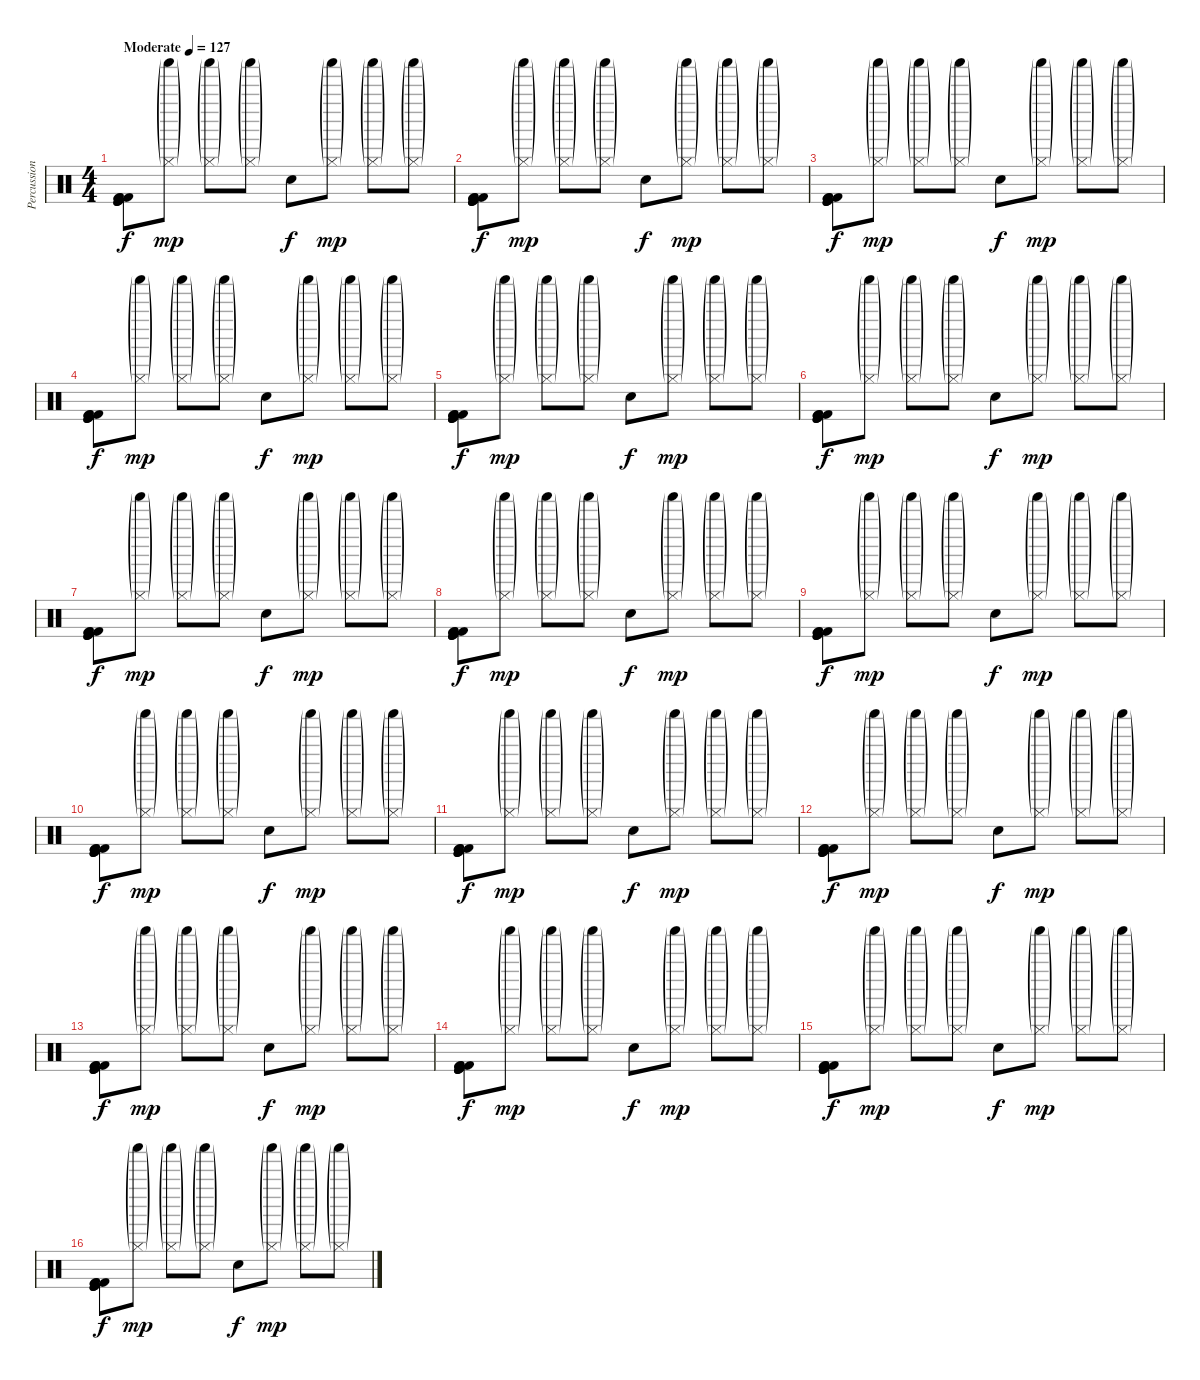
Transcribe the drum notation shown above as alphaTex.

\track ("Percussion" "Percussion") {instrument percussion}
\staff {score}
\articulation defaults
\ts (4 4)
\tempo (127 "Moderate")
\clef neutral
\ks c
("Kick (hit)" "Kick (hit) 2" "Kick (hit)" "Kick (hit) 2" "Kick (hit)" "Kick (hit) 2").8{dy f} ("Shaker (hit)"{g} "Hi-Hat (closed)"{g}).8{dy mp} ("Shaker (hit)"{g} "Hi-Hat (closed)"{g}).8 ("Shaker (hit)"{g} "Hi-Hat (closed)"{g}).8 "Electric Snare (hit)".8{dy f} ("Shaker (hit)"{g} "Hi-Hat (closed)"{g}).8{dy mp} ("Shaker (hit)"{g} "Hi-Hat (closed)"{g}).8 ("Shaker (hit)"{g} "Hi-Hat (closed)"{g}).8 |
("Kick (hit)" "Kick (hit) 2" "Kick (hit)" "Kick (hit) 2" "Kick (hit)" "Kick (hit) 2").8{dy f} ("Shaker (hit)"{g} "Hi-Hat (closed)"{g}).8{dy mp} ("Shaker (hit)"{g} "Hi-Hat (closed)"{g}).8 ("Shaker (hit)"{g} "Hi-Hat (closed)"{g}).8 "Electric Snare (hit)".8{dy f} ("Shaker (hit)"{g} "Hi-Hat (closed)"{g}).8{dy mp} ("Shaker (hit)"{g} "Hi-Hat (closed)"{g}).8 ("Shaker (hit)"{g} "Hi-Hat (closed)"{g}).8 |
("Kick (hit)" "Kick (hit) 2" "Kick (hit)" "Kick (hit) 2" "Kick (hit)" "Kick (hit) 2").8{dy f} ("Shaker (hit)"{g} "Hi-Hat (closed)"{g}).8{dy mp} ("Shaker (hit)"{g} "Hi-Hat (closed)"{g}).8 ("Shaker (hit)"{g} "Hi-Hat (closed)"{g}).8 "Electric Snare (hit)".8{dy f} ("Shaker (hit)"{g} "Hi-Hat (closed)"{g}).8{dy mp} ("Shaker (hit)"{g} "Hi-Hat (closed)"{g}).8 ("Shaker (hit)"{g} "Hi-Hat (closed)"{g}).8 |
("Kick (hit)" "Kick (hit) 2" "Kick (hit)" "Kick (hit) 2" "Kick (hit)" "Kick (hit) 2").8{dy f} ("Shaker (hit)"{g} "Hi-Hat (closed)"{g}).8{dy mp} ("Shaker (hit)"{g} "Hi-Hat (closed)"{g}).8 ("Shaker (hit)"{g} "Hi-Hat (closed)"{g}).8 "Electric Snare (hit)".8{dy f} ("Shaker (hit)"{g} "Hi-Hat (closed)"{g}).8{dy mp} ("Shaker (hit)"{g} "Hi-Hat (closed)"{g}).8 ("Shaker (hit)"{g} "Hi-Hat (closed)"{g}).8 |
("Kick (hit)" "Kick (hit) 2" "Kick (hit)" "Kick (hit) 2" "Kick (hit)" "Kick (hit) 2").8{dy f} ("Shaker (hit)"{g} "Hi-Hat (closed)"{g}).8{dy mp} ("Shaker (hit)"{g} "Hi-Hat (closed)"{g}).8 ("Shaker (hit)"{g} "Hi-Hat (closed)"{g}).8 "Electric Snare (hit)".8{dy f} ("Shaker (hit)"{g} "Hi-Hat (closed)"{g}).8{dy mp} ("Shaker (hit)"{g} "Hi-Hat (closed)"{g}).8 ("Shaker (hit)"{g} "Hi-Hat (closed)"{g}).8 |
("Kick (hit)" "Kick (hit) 2" "Kick (hit)" "Kick (hit) 2" "Kick (hit)" "Kick (hit) 2").8{dy f} ("Shaker (hit)"{g} "Hi-Hat (closed)"{g}).8{dy mp} ("Shaker (hit)"{g} "Hi-Hat (closed)"{g}).8 ("Shaker (hit)"{g} "Hi-Hat (closed)"{g}).8 "Electric Snare (hit)".8{dy f} ("Shaker (hit)"{g} "Hi-Hat (closed)"{g}).8{dy mp} ("Shaker (hit)"{g} "Hi-Hat (closed)"{g}).8 ("Shaker (hit)"{g} "Hi-Hat (closed)"{g}).8 |
("Kick (hit)" "Kick (hit) 2" "Kick (hit)" "Kick (hit) 2" "Kick (hit)" "Kick (hit) 2").8{dy f} ("Shaker (hit)"{g} "Hi-Hat (closed)"{g}).8{dy mp} ("Shaker (hit)"{g} "Hi-Hat (closed)"{g}).8 ("Shaker (hit)"{g} "Hi-Hat (closed)"{g}).8 "Electric Snare (hit)".8{dy f} ("Shaker (hit)"{g} "Hi-Hat (closed)"{g}).8{dy mp} ("Shaker (hit)"{g} "Hi-Hat (closed)"{g}).8 ("Shaker (hit)"{g} "Hi-Hat (closed)"{g}).8 |
("Kick (hit)" "Kick (hit) 2" "Kick (hit)" "Kick (hit) 2" "Kick (hit)" "Kick (hit) 2").8{dy f} ("Shaker (hit)"{g} "Hi-Hat (closed)"{g}).8{dy mp} ("Shaker (hit)"{g} "Hi-Hat (closed)"{g}).8 ("Shaker (hit)"{g} "Hi-Hat (closed)"{g}).8 "Electric Snare (hit)".8{dy f} ("Shaker (hit)"{g} "Hi-Hat (closed)"{g}).8{dy mp} ("Shaker (hit)"{g} "Hi-Hat (closed)"{g}).8 ("Shaker (hit)"{g} "Hi-Hat (closed)"{g}).8 |
("Kick (hit)" "Kick (hit) 2" "Kick (hit)" "Kick (hit) 2" "Kick (hit)" "Kick (hit) 2").8{dy f} ("Shaker (hit)"{g} "Hi-Hat (closed)"{g}).8{dy mp} ("Shaker (hit)"{g} "Hi-Hat (closed)"{g}).8 ("Shaker (hit)"{g} "Hi-Hat (closed)"{g}).8 "Electric Snare (hit)".8{dy f} ("Shaker (hit)"{g} "Hi-Hat (closed)"{g}).8{dy mp} ("Shaker (hit)"{g} "Hi-Hat (closed)"{g}).8 ("Shaker (hit)"{g} "Hi-Hat (closed)"{g}).8 |
("Kick (hit)" "Kick (hit) 2" "Kick (hit)" "Kick (hit) 2" "Kick (hit)" "Kick (hit) 2").8{dy f} ("Shaker (hit)"{g} "Hi-Hat (closed)"{g}).8{dy mp} ("Shaker (hit)"{g} "Hi-Hat (closed)"{g}).8 ("Shaker (hit)"{g} "Hi-Hat (closed)"{g}).8 "Electric Snare (hit)".8{dy f} ("Shaker (hit)"{g} "Hi-Hat (closed)"{g}).8{dy mp} ("Shaker (hit)"{g} "Hi-Hat (closed)"{g}).8 ("Shaker (hit)"{g} "Hi-Hat (closed)"{g}).8 |
("Kick (hit)" "Kick (hit) 2" "Kick (hit)" "Kick (hit) 2" "Kick (hit)" "Kick (hit) 2").8{dy f} ("Shaker (hit)"{g} "Hi-Hat (closed)"{g}).8{dy mp} ("Shaker (hit)"{g} "Hi-Hat (closed)"{g}).8 ("Shaker (hit)"{g} "Hi-Hat (closed)"{g}).8 "Electric Snare (hit)".8{dy f} ("Shaker (hit)"{g} "Hi-Hat (closed)"{g}).8{dy mp} ("Shaker (hit)"{g} "Hi-Hat (closed)"{g}).8 ("Shaker (hit)"{g} "Hi-Hat (closed)"{g}).8 |
("Kick (hit)" "Kick (hit) 2" "Kick (hit)" "Kick (hit) 2" "Kick (hit)" "Kick (hit) 2").8{dy f} ("Shaker (hit)"{g} "Hi-Hat (closed)"{g}).8{dy mp} ("Shaker (hit)"{g} "Hi-Hat (closed)"{g}).8 ("Shaker (hit)"{g} "Hi-Hat (closed)"{g}).8 "Electric Snare (hit)".8{dy f} ("Shaker (hit)"{g} "Hi-Hat (closed)"{g}).8{dy mp} ("Shaker (hit)"{g} "Hi-Hat (closed)"{g}).8 ("Shaker (hit)"{g} "Hi-Hat (closed)"{g}).8 |
("Kick (hit)" "Kick (hit) 2" "Kick (hit)" "Kick (hit) 2" "Kick (hit)" "Kick (hit) 2").8{dy f} ("Shaker (hit)"{g} "Hi-Hat (closed)"{g}).8{dy mp} ("Shaker (hit)"{g} "Hi-Hat (closed)"{g}).8 ("Shaker (hit)"{g} "Hi-Hat (closed)"{g}).8 "Electric Snare (hit)".8{dy f} ("Shaker (hit)"{g} "Hi-Hat (closed)"{g}).8{dy mp} ("Shaker (hit)"{g} "Hi-Hat (closed)"{g}).8 ("Shaker (hit)"{g} "Hi-Hat (closed)"{g}).8 |
("Kick (hit)" "Kick (hit) 2" "Kick (hit)" "Kick (hit) 2" "Kick (hit)" "Kick (hit) 2").8{dy f} ("Shaker (hit)"{g} "Hi-Hat (closed)"{g}).8{dy mp} ("Shaker (hit)"{g} "Hi-Hat (closed)"{g}).8 ("Shaker (hit)"{g} "Hi-Hat (closed)"{g}).8 "Electric Snare (hit)".8{dy f} ("Shaker (hit)"{g} "Hi-Hat (closed)"{g}).8{dy mp} ("Shaker (hit)"{g} "Hi-Hat (closed)"{g}).8 ("Shaker (hit)"{g} "Hi-Hat (closed)"{g}).8 |
("Kick (hit)" "Kick (hit) 2" "Kick (hit)" "Kick (hit) 2" "Kick (hit)" "Kick (hit) 2").8{dy f} ("Shaker (hit)"{g} "Hi-Hat (closed)"{g}).8{dy mp} ("Shaker (hit)"{g} "Hi-Hat (closed)"{g}).8 ("Shaker (hit)"{g} "Hi-Hat (closed)"{g}).8 "Electric Snare (hit)".8{dy f} ("Shaker (hit)"{g} "Hi-Hat (closed)"{g}).8{dy mp} ("Shaker (hit)"{g} "Hi-Hat (closed)"{g}).8 ("Shaker (hit)"{g} "Hi-Hat (closed)"{g}).8 |
("Kick (hit)" "Kick (hit) 2" "Kick (hit)" "Kick (hit) 2" "Kick (hit)" "Kick (hit) 2").8{dy f} ("Shaker (hit)"{g} "Hi-Hat (closed)"{g}).8{dy mp} ("Shaker (hit)"{g} "Hi-Hat (closed)"{g}).8 ("Shaker (hit)"{g} "Hi-Hat (closed)"{g}).8 "Electric Snare (hit)".8{dy f} ("Shaker (hit)"{g} "Hi-Hat (closed)"{g}).8{dy mp} ("Shaker (hit)"{g} "Hi-Hat (closed)"{g}).8 ("Shaker (hit)"{g} "Hi-Hat (closed)"{g}).8
